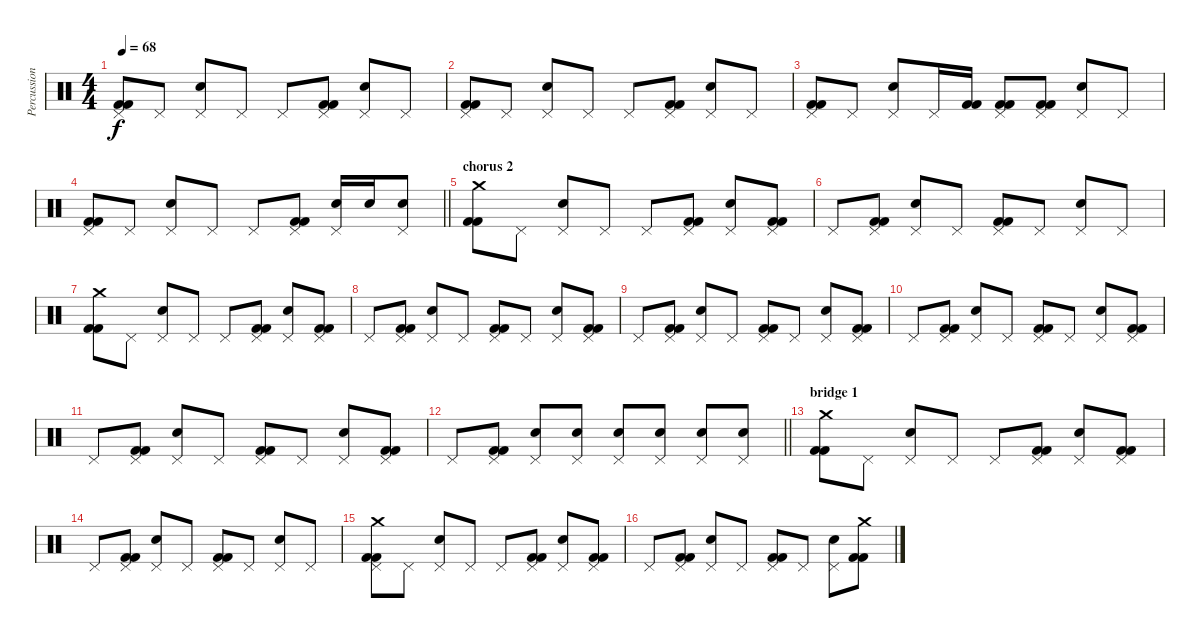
\track ("Percussion" "Percussion") {instrument percussion}
\staff {score}
\articulation defaults
\ts (4 4)
\tempo 68
\clef neutral
\ks c
("Kick (hit) 2" "Kick (hit) 2" "Pedal Hi-Hat (hit)").8{dy f} "Pedal Hi-Hat (hit)".8 ("Electric Snare (hit)" "Pedal Hi-Hat (hit)").8 "Pedal Hi-Hat (hit)".8 "Pedal Hi-Hat (hit)".8 ("Kick (hit) 2" "Kick (hit) 2" "Pedal Hi-Hat (hit)").8 ("Electric Snare (hit)" "Pedal Hi-Hat (hit)").8 "Pedal Hi-Hat (hit)".8 |
("Kick (hit) 2" "Kick (hit) 2" "Pedal Hi-Hat (hit)").8 "Pedal Hi-Hat (hit)".8 ("Electric Snare (hit)" "Pedal Hi-Hat (hit)").8 "Pedal Hi-Hat (hit)".8 "Pedal Hi-Hat (hit)".8 ("Kick (hit) 2" "Kick (hit) 2" "Pedal Hi-Hat (hit)").8 ("Electric Snare (hit)" "Pedal Hi-Hat (hit)").8 "Pedal Hi-Hat (hit)".8 |
("Kick (hit) 2" "Kick (hit) 2" "Pedal Hi-Hat (hit)").8 "Pedal Hi-Hat (hit)".8 ("Electric Snare (hit)" "Pedal Hi-Hat (hit)").8 "Pedal Hi-Hat (hit)".16 ("Kick (hit) 2" "Kick (hit) 2").16 ("Kick (hit) 2" "Kick (hit) 2" "Pedal Hi-Hat (hit)").8 ("Kick (hit) 2" "Kick (hit) 2" "Pedal Hi-Hat (hit)").8 ("Electric Snare (hit)" "Pedal Hi-Hat (hit)").8 "Pedal Hi-Hat (hit)".8 |
\barLineRight lightlight
("Kick (hit) 2" "Kick (hit) 2" "Pedal Hi-Hat (hit)").8 "Pedal Hi-Hat (hit)".8 ("Electric Snare (hit)" "Pedal Hi-Hat (hit)").8 "Pedal Hi-Hat (hit)".8 "Pedal Hi-Hat (hit)".8 ("Kick (hit) 2" "Kick (hit) 2" "Pedal Hi-Hat (hit)").8 ("Electric Snare (hit)" "Pedal Hi-Hat (hit)").16 "Electric Snare (hit)".16 ("Electric Snare (hit)" "Pedal Hi-Hat (hit)").8 |
\section ("" "chorus 2")
("Kick (hit) 2" "Kick (hit) 2" "Crash medium (hit)").8 "Pedal Hi-Hat (hit)".8 ("Electric Snare (hit)" "Pedal Hi-Hat (hit)").8 "Pedal Hi-Hat (hit)".8 "Pedal Hi-Hat (hit)".8 ("Kick (hit) 2" "Kick (hit) 2" "Pedal Hi-Hat (hit)").8 ("Electric Snare (hit)" "Pedal Hi-Hat (hit)").8 ("Kick (hit) 2" "Kick (hit) 2" "Pedal Hi-Hat (hit)").8 |
"Pedal Hi-Hat (hit)".8 ("Kick (hit) 2" "Kick (hit) 2" "Pedal Hi-Hat (hit)").8 ("Electric Snare (hit)" "Pedal Hi-Hat (hit)").8 "Pedal Hi-Hat (hit)".8 ("Kick (hit) 2" "Kick (hit) 2" "Pedal Hi-Hat (hit)").8 "Pedal Hi-Hat (hit)".8 ("Electric Snare (hit)" "Pedal Hi-Hat (hit)").8 "Pedal Hi-Hat (hit)".8 |
("Kick (hit) 2" "Kick (hit) 2" "Crash medium (hit)").8 "Pedal Hi-Hat (hit)".8 ("Electric Snare (hit)" "Pedal Hi-Hat (hit)").8 "Pedal Hi-Hat (hit)".8 "Pedal Hi-Hat (hit)".8 ("Kick (hit) 2" "Kick (hit) 2" "Pedal Hi-Hat (hit)").8 ("Electric Snare (hit)" "Pedal Hi-Hat (hit)").8 ("Kick (hit) 2" "Kick (hit) 2" "Pedal Hi-Hat (hit)").8 |
"Pedal Hi-Hat (hit)".8 ("Kick (hit) 2" "Kick (hit) 2" "Pedal Hi-Hat (hit)").8 ("Electric Snare (hit)" "Pedal Hi-Hat (hit)").8 "Pedal Hi-Hat (hit)".8 ("Kick (hit) 2" "Kick (hit) 2" "Pedal Hi-Hat (hit)").8 "Pedal Hi-Hat (hit)".8 ("Electric Snare (hit)" "Pedal Hi-Hat (hit)").8 ("Kick (hit) 2" "Kick (hit) 2" "Pedal Hi-Hat (hit)").8 |
"Pedal Hi-Hat (hit)".8 ("Kick (hit) 2" "Kick (hit) 2" "Pedal Hi-Hat (hit)").8 ("Electric Snare (hit)" "Pedal Hi-Hat (hit)").8 "Pedal Hi-Hat (hit)".8 ("Kick (hit) 2" "Kick (hit) 2" "Pedal Hi-Hat (hit)").8 "Pedal Hi-Hat (hit)".8 ("Electric Snare (hit)" "Pedal Hi-Hat (hit)").8 ("Kick (hit) 2" "Kick (hit) 2" "Pedal Hi-Hat (hit)").8 |
"Pedal Hi-Hat (hit)".8 ("Kick (hit) 2" "Kick (hit) 2" "Pedal Hi-Hat (hit)").8 ("Electric Snare (hit)" "Pedal Hi-Hat (hit)").8 "Pedal Hi-Hat (hit)".8 ("Kick (hit) 2" "Kick (hit) 2" "Pedal Hi-Hat (hit)").8 "Pedal Hi-Hat (hit)".8 ("Electric Snare (hit)" "Pedal Hi-Hat (hit)").8 ("Kick (hit) 2" "Kick (hit) 2" "Pedal Hi-Hat (hit)").8 |
"Pedal Hi-Hat (hit)".8 ("Kick (hit) 2" "Kick (hit) 2" "Pedal Hi-Hat (hit)").8 ("Electric Snare (hit)" "Pedal Hi-Hat (hit)").8 "Pedal Hi-Hat (hit)".8 ("Kick (hit) 2" "Kick (hit) 2" "Pedal Hi-Hat (hit)").8 "Pedal Hi-Hat (hit)".8 ("Electric Snare (hit)" "Pedal Hi-Hat (hit)").8 ("Kick (hit) 2" "Kick (hit) 2" "Pedal Hi-Hat (hit)").8 |
\barLineRight lightlight "Pedal Hi-Hat (hit)".8
("Kick (hit) 2" "Kick (hit) 2" "Pedal Hi-Hat (hit)").8 ("Electric Snare (hit)" "Pedal Hi-Hat (hit)").8 ("Electric Snare (hit)" "Pedal Hi-Hat (hit)").8 ("Electric Snare (hit)" "Pedal Hi-Hat (hit)").8 ("Electric Snare (hit)" "Pedal Hi-Hat (hit)").8 ("Electric Snare (hit)" "Pedal Hi-Hat (hit)").8 ("Electric Snare (hit)" "Pedal Hi-Hat (hit)").8 |
\section ("" "bridge 1")
("Kick (hit) 2" "Kick (hit) 2" "Crash medium (hit)").8 "Pedal Hi-Hat (hit)".8 ("Electric Snare (hit)" "Pedal Hi-Hat (hit)").8 "Pedal Hi-Hat (hit)".8 "Pedal Hi-Hat (hit)".8 ("Kick (hit) 2" "Kick (hit) 2" "Pedal Hi-Hat (hit)").8 ("Electric Snare (hit)" "Pedal Hi-Hat (hit)").8 ("Kick (hit) 2" "Kick (hit) 2" "Pedal Hi-Hat (hit)").8 |
"Pedal Hi-Hat (hit)".8 ("Kick (hit) 2" "Kick (hit) 2" "Pedal Hi-Hat (hit)").8 ("Electric Snare (hit)" "Pedal Hi-Hat (hit)").8 "Pedal Hi-Hat (hit)".8 ("Kick (hit) 2" "Kick (hit) 2" "Pedal Hi-Hat (hit)").8 "Pedal Hi-Hat (hit)".8 ("Electric Snare (hit)" "Pedal Hi-Hat (hit)").8 "Pedal Hi-Hat (hit)".8 |
("Kick (hit) 2" "Kick (hit) 2" "Pedal Hi-Hat (hit)" "Crash medium (hit)").8 "Pedal Hi-Hat (hit)".8 ("Electric Snare (hit)" "Pedal Hi-Hat (hit)").8 "Pedal Hi-Hat (hit)".8 "Pedal Hi-Hat (hit)".8 ("Kick (hit) 2" "Kick (hit) 2" "Pedal Hi-Hat (hit)").8 ("Electric Snare (hit)" "Pedal Hi-Hat (hit)").8 ("Kick (hit) 2" "Kick (hit) 2" "Pedal Hi-Hat (hit)").8 |
"Pedal Hi-Hat (hit)".8 ("Kick (hit) 2" "Kick (hit) 2" "Pedal Hi-Hat (hit)").8 ("Electric Snare (hit)" "Pedal Hi-Hat (hit)").8 "Pedal Hi-Hat (hit)".8 ("Kick (hit) 2" "Kick (hit) 2" "Pedal Hi-Hat (hit)").8 "Pedal Hi-Hat (hit)".8 ("Electric Snare (hit)" "Pedal Hi-Hat (hit)").8 ("Kick (hit) 2" "Kick (hit) 2" "Crash medium (hit)").8
